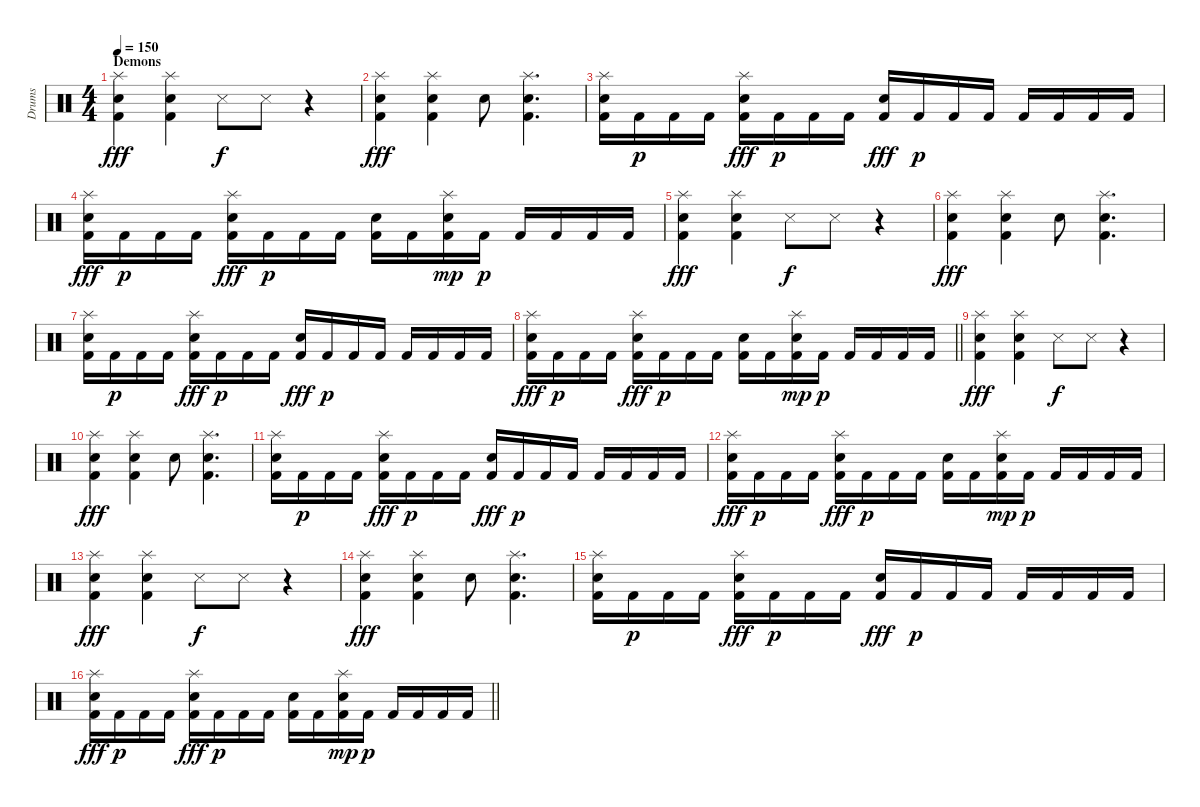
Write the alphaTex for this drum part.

\track ("Drums" "Drums") {instrument percussion}
\staff {score}
\articulation defaults
\ts (4 4)
\section ("" "Demons")
\tempo 150
\clef neutral
\ks c
("Splash (hit)" "Electric Snare (hit)" "Kick (hit) 2").4{dy fff} ("Splash (hit)" "Electric Snare (hit)" "Kick (hit) 2").4 "Metronome (hit)".8{dy f} "Metronome (hit)".8 r.4 |
("Splash (hit)" "Electric Snare (hit)" "Kick (hit) 2").4{dy fff} ("Splash (hit)" "Electric Snare (hit)" "Kick (hit) 2").4 "Hand Clap (hit)".8 ("Splash (hit)" "Electric Snare (hit)" "Kick (hit) 2").4{d} |
("Splash (hit)" "Electric Snare (hit)" "Kick (hit) 2").16 "Kick (hit) 2".16{dy p} "Kick (hit) 2".16 "Kick (hit) 2".16 ("Splash (hit)" "Electric Snare (hit)" "Kick (hit) 2").16{dy fff} "Kick (hit) 2".16{dy p} "Kick (hit) 2".16 "Kick (hit) 2".16 ("Hand Clap (hit)" "Kick (hit) 2").16{dy fff} "Kick (hit) 2".16{dy p} "Kick (hit) 2".16 "Kick (hit) 2".16 "Kick (hit) 2".16 "Kick (hit) 2".16 "Kick (hit) 2".16 "Kick (hit) 2".16 |
("Splash (hit)" "Electric Snare (hit)" "Kick (hit) 2").16{dy fff} "Kick (hit) 2".16{dy p} "Kick (hit) 2".16 "Kick (hit) 2".16 ("Splash (hit)" "Electric Snare (hit)" "Kick (hit) 2").16{dy fff} "Kick (hit) 2".16{dy p} "Kick (hit) 2".16 "Kick (hit) 2".16 ("Hand Clap (hit)" "Kick (hit) 2").16 "Kick (hit) 2".16 ("Splash (hit)" "Electric Snare (hit)" "Kick (hit) 2").16{dy mp} "Kick (hit) 2".16{dy p} "Kick (hit) 2".16 "Kick (hit) 2".16 "Kick (hit) 2".16 "Kick (hit) 2".16 |
("Splash (hit)" "Electric Snare (hit)" "Kick (hit) 2").4{dy fff} ("Splash (hit)" "Electric Snare (hit)" "Kick (hit) 2").4 "Metronome (hit)".8{dy f} "Metronome (hit)".8 r.4 |
("Splash (hit)" "Electric Snare (hit)" "Kick (hit) 2").4{dy fff} ("Splash (hit)" "Electric Snare (hit)" "Kick (hit) 2").4 "Hand Clap (hit)".8 ("Splash (hit)" "Electric Snare (hit)" "Kick (hit) 2").4{d} |
("Splash (hit)" "Electric Snare (hit)" "Kick (hit) 2").16 "Kick (hit) 2".16{dy p} "Kick (hit) 2".16 "Kick (hit) 2".16 ("Splash (hit)" "Electric Snare (hit)" "Kick (hit) 2").16{dy fff} "Kick (hit) 2".16{dy p} "Kick (hit) 2".16 "Kick (hit) 2".16 ("Hand Clap (hit)" "Kick (hit) 2").16{dy fff} "Kick (hit) 2".16{dy p} "Kick (hit) 2".16 "Kick (hit) 2".16 "Kick (hit) 2".16 "Kick (hit) 2".16 "Kick (hit) 2".16 "Kick (hit) 2".16 |
\barLineRight lightlight
("Splash (hit)" "Electric Snare (hit)" "Kick (hit) 2").16{dy fff} "Kick (hit) 2".16{dy p} "Kick (hit) 2".16 "Kick (hit) 2".16 ("Splash (hit)" "Electric Snare (hit)" "Kick (hit) 2").16{dy fff} "Kick (hit) 2".16{dy p} "Kick (hit) 2".16 "Kick (hit) 2".16 ("Hand Clap (hit)" "Kick (hit) 2").16 "Kick (hit) 2".16 ("Splash (hit)" "Electric Snare (hit)" "Kick (hit) 2").16{dy mp} "Kick (hit) 2".16{dy p} "Kick (hit) 2".16 "Kick (hit) 2".16 "Kick (hit) 2".16 "Kick (hit) 2".16 |
("Splash (hit)" "Electric Snare (hit)" "Kick (hit) 2").4{dy fff} ("Splash (hit)" "Electric Snare (hit)" "Kick (hit) 2").4 "Metronome (hit)".8{dy f} "Metronome (hit)".8 r.4 |
("Splash (hit)" "Electric Snare (hit)" "Kick (hit) 2").4{dy fff} ("Splash (hit)" "Electric Snare (hit)" "Kick (hit) 2").4 "Hand Clap (hit)".8 ("Splash (hit)" "Electric Snare (hit)" "Kick (hit) 2").4{d} |
("Splash (hit)" "Electric Snare (hit)" "Kick (hit) 2").16 "Kick (hit) 2".16{dy p} "Kick (hit) 2".16 "Kick (hit) 2".16 ("Splash (hit)" "Electric Snare (hit)" "Kick (hit) 2").16{dy fff} "Kick (hit) 2".16{dy p} "Kick (hit) 2".16 "Kick (hit) 2".16 ("Hand Clap (hit)" "Kick (hit) 2").16{dy fff} "Kick (hit) 2".16{dy p} "Kick (hit) 2".16 "Kick (hit) 2".16 "Kick (hit) 2".16 "Kick (hit) 2".16 "Kick (hit) 2".16 "Kick (hit) 2".16 |
("Splash (hit)" "Electric Snare (hit)" "Kick (hit) 2").16{dy fff} "Kick (hit) 2".16{dy p} "Kick (hit) 2".16 "Kick (hit) 2".16 ("Splash (hit)" "Electric Snare (hit)" "Kick (hit) 2").16{dy fff} "Kick (hit) 2".16{dy p} "Kick (hit) 2".16 "Kick (hit) 2".16 ("Hand Clap (hit)" "Kick (hit) 2").16 "Kick (hit) 2".16 ("Splash (hit)" "Electric Snare (hit)" "Kick (hit) 2").16{dy mp} "Kick (hit) 2".16{dy p} "Kick (hit) 2".16 "Kick (hit) 2".16 "Kick (hit) 2".16 "Kick (hit) 2".16 |
("Splash (hit)" "Electric Snare (hit)" "Kick (hit) 2").4{dy fff} ("Splash (hit)" "Electric Snare (hit)" "Kick (hit) 2").4 "Metronome (hit)".8{dy f} "Metronome (hit)".8 r.4 |
("Splash (hit)" "Electric Snare (hit)" "Kick (hit) 2").4{dy fff} ("Splash (hit)" "Electric Snare (hit)" "Kick (hit) 2").4 "Hand Clap (hit)".8 ("Splash (hit)" "Electric Snare (hit)" "Kick (hit) 2").4{d} |
("Splash (hit)" "Electric Snare (hit)" "Kick (hit) 2").16 "Kick (hit) 2".16{dy p} "Kick (hit) 2".16 "Kick (hit) 2".16 ("Splash (hit)" "Electric Snare (hit)" "Kick (hit) 2").16{dy fff} "Kick (hit) 2".16{dy p} "Kick (hit) 2".16 "Kick (hit) 2".16 ("Hand Clap (hit)" "Kick (hit) 2").16{dy fff} "Kick (hit) 2".16{dy p} "Kick (hit) 2".16 "Kick (hit) 2".16 "Kick (hit) 2".16 "Kick (hit) 2".16 "Kick (hit) 2".16 "Kick (hit) 2".16 |
\barLineRight lightlight
("Splash (hit)" "Electric Snare (hit)" "Kick (hit) 2").16{dy fff} "Kick (hit) 2".16{dy p} "Kick (hit) 2".16 "Kick (hit) 2".16 ("Splash (hit)" "Electric Snare (hit)" "Kick (hit) 2").16{dy fff} "Kick (hit) 2".16{dy p} "Kick (hit) 2".16 "Kick (hit) 2".16 ("Hand Clap (hit)" "Kick (hit) 2").16 "Kick (hit) 2".16 ("Splash (hit)" "Electric Snare (hit)" "Kick (hit) 2").16{dy mp} "Kick (hit) 2".16{dy p} "Kick (hit) 2".16 "Kick (hit) 2".16 "Kick (hit) 2".16 "Kick (hit) 2".16
